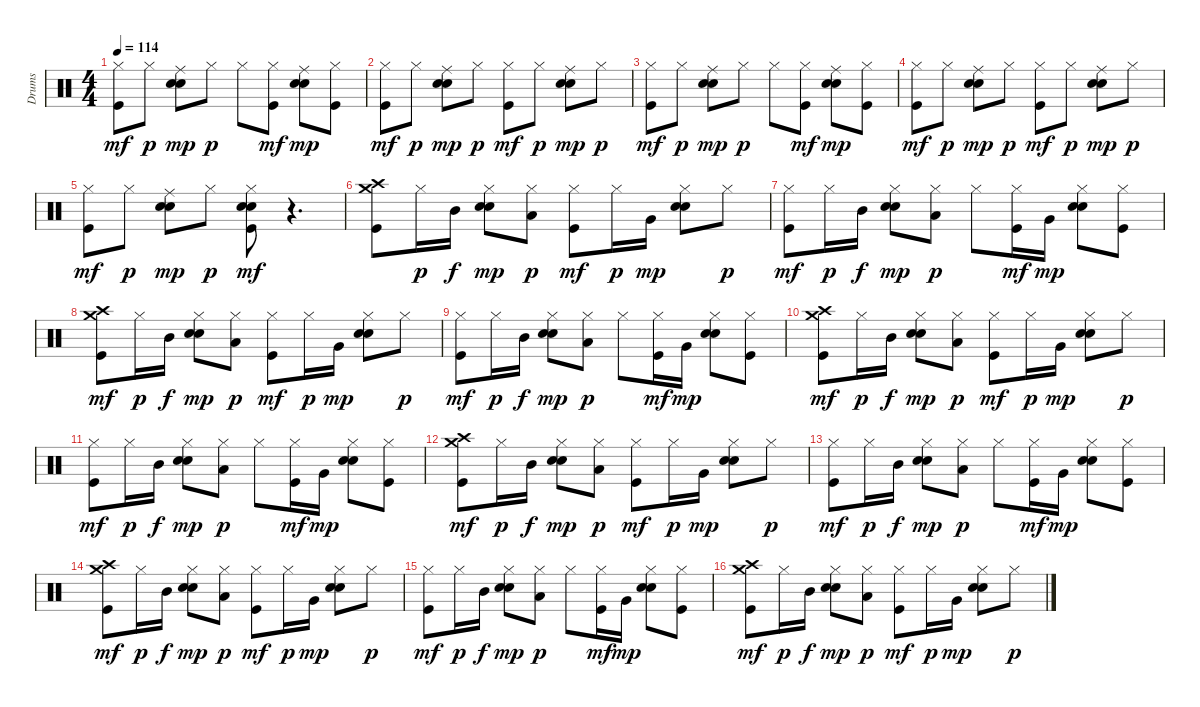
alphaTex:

\track ("Drums" "Drums") {instrument percussion}
\staff {score}
\articulation defaults
\ts (4 4)
\tempo 114
\clef neutral
\ks c
("Hi-Hat (closed)" "Kick (hit)").8{dy mf} "Hi-Hat (closed)".8{dy p} ("Ride (middle)" "Snare (hit) 2" "Electric Snare (hit)").8{dy mp} "Hi-Hat (closed)".8{dy p} "Hi-Hat (closed)".8 ("Hi-Hat (closed)" "Kick (hit)").8{dy mf} ("Ride (middle)" "Snare (hit) 2" "Electric Snare (hit)").8{dy mp} ("Hi-Hat (closed)" "Kick (hit)").8 |
("Hi-Hat (closed)" "Kick (hit)").8{dy mf} "Hi-Hat (closed)".8{dy p} ("Ride (middle)" "Snare (hit) 2" "Electric Snare (hit)").8{dy mp} "Hi-Hat (closed)".8{dy p} ("Hi-Hat (closed)" "Kick (hit)").8{dy mf} "Hi-Hat (closed)".8{dy p} ("Ride (middle)" "Snare (hit) 2" "Electric Snare (hit)").8{dy mp} "Hi-Hat (closed)".8{dy p} |
("Hi-Hat (closed)" "Kick (hit)").8{dy mf} "Hi-Hat (closed)".8{dy p} ("Ride (middle)" "Snare (hit) 2" "Electric Snare (hit)").8{dy mp} "Hi-Hat (closed)".8{dy p} "Hi-Hat (closed)".8 ("Hi-Hat (closed)" "Kick (hit)").8{dy mf} ("Ride (middle)" "Snare (hit) 2" "Electric Snare (hit)").8{dy mp} ("Hi-Hat (closed)" "Kick (hit)").8 |
("Hi-Hat (closed)" "Kick (hit)").8{dy mf} "Hi-Hat (closed)".8{dy p} ("Ride (middle)" "Snare (hit) 2" "Electric Snare (hit)").8{dy mp} "Hi-Hat (closed)".8{dy p} ("Hi-Hat (closed)" "Kick (hit)").8{dy mf} "Hi-Hat (closed)".8{dy p} ("Ride (middle)" "Snare (hit) 2" "Electric Snare (hit)").8{dy mp} "Hi-Hat (closed)".8{dy p} |
("Hi-Hat (closed)" "Kick (hit)").8{dy mf} "Hi-Hat (closed)".8{dy p} ("Ride (middle)" "Snare (hit) 2" "Electric Snare (hit)").8{dy mp} "Hi-Hat (closed)".8{dy p} ("Hi-Hat (closed)" "Snare (hit) 2" "Electric Snare (hit)" "Kick (hit)").8{dy mf} r.4{d} |
("Crash medium (hit)" "Crash high (hit)" "Kick (hit)").8 "Hi-Hat (closed)".16{dy p} "Mid Tom (hit)".16{dy f} ("Hi-Hat (closed)" "Snare (hit) 2" "Electric Snare (hit)").8{dy mp} ("Hi-Hat (closed)" "Low Tom (hit)").8{dy p} ("Hi-Hat (closed)" "Kick (hit)").8{dy mf} "Hi-Hat (closed)".16{dy p} "Very Low Tom (hit)".16{dy mp} ("Hi-Hat (closed)" "Snare (hit) 2" "Electric Snare (hit)").8 "Hi-Hat (closed)".8{dy p} |
("Hi-Hat (closed)" "Kick (hit)").8{dy mf} "Hi-Hat (closed)".16{dy p} "Mid Tom (hit)".16{dy f} ("Hi-Hat (closed)" "Snare (hit) 2" "Electric Snare (hit)").8{dy mp} ("Hi-Hat (closed)" "Low Tom (hit)").8{dy p} "Hi-Hat (closed)".8 ("Hi-Hat (closed)" "Kick (hit)").16{dy mf} "Very Low Tom (hit)".16{dy mp} ("Hi-Hat (closed)" "Snare (hit) 2" "Electric Snare (hit)").8 ("Hi-Hat (closed)" "Kick (hit)").8 |
("Crash medium (hit)" "Crash high (hit)" "Kick (hit)").8{dy mf} "Hi-Hat (closed)".16{dy p} "Mid Tom (hit)".16{dy f} ("Hi-Hat (closed)" "Snare (hit) 2" "Electric Snare (hit)").8{dy mp} ("Hi-Hat (closed)" "Low Tom (hit)").8{dy p} ("Hi-Hat (closed)" "Kick (hit)").8{dy mf} "Hi-Hat (closed)".16{dy p} "Very Low Tom (hit)".16{dy mp} ("Hi-Hat (closed)" "Snare (hit) 2" "Electric Snare (hit)").8 "Hi-Hat (closed)".8{dy p} |
("Hi-Hat (closed)" "Kick (hit)").8{dy mf} "Hi-Hat (closed)".16{dy p} "Mid Tom (hit)".16{dy f} ("Hi-Hat (closed)" "Snare (hit) 2" "Electric Snare (hit)").8{dy mp} ("Hi-Hat (closed)" "Low Tom (hit)").8{dy p} "Hi-Hat (closed)".8 ("Hi-Hat (closed)" "Kick (hit)").16{dy mf} "Very Low Tom (hit)".16{dy mp} ("Hi-Hat (closed)" "Snare (hit) 2" "Electric Snare (hit)").8 ("Hi-Hat (closed)" "Kick (hit)").8 |
("Crash medium (hit)" "Crash high (hit)" "Kick (hit)").8{dy mf} "Hi-Hat (closed)".16{dy p} "Mid Tom (hit)".16{dy f} ("Hi-Hat (closed)" "Snare (hit) 2" "Electric Snare (hit)").8{dy mp} ("Hi-Hat (closed)" "Low Tom (hit)").8{dy p} ("Hi-Hat (closed)" "Kick (hit)").8{dy mf} "Hi-Hat (closed)".16{dy p} "Very Low Tom (hit)".16{dy mp} ("Hi-Hat (closed)" "Snare (hit) 2" "Electric Snare (hit)").8 "Hi-Hat (closed)".8{dy p} |
("Hi-Hat (closed)" "Kick (hit)").8{dy mf} "Hi-Hat (closed)".16{dy p} "Mid Tom (hit)".16{dy f} ("Hi-Hat (closed)" "Snare (hit) 2" "Electric Snare (hit)").8{dy mp} ("Hi-Hat (closed)" "Low Tom (hit)").8{dy p} "Hi-Hat (closed)".8 ("Hi-Hat (closed)" "Kick (hit)").16{dy mf} "Very Low Tom (hit)".16{dy mp} ("Hi-Hat (closed)" "Snare (hit) 2" "Electric Snare (hit)").8 ("Hi-Hat (closed)" "Kick (hit)").8 |
("Crash medium (hit)" "Crash high (hit)" "Kick (hit)").8{dy mf} "Hi-Hat (closed)".16{dy p} "Mid Tom (hit)".16{dy f} ("Hi-Hat (closed)" "Snare (hit) 2" "Electric Snare (hit)").8{dy mp} ("Hi-Hat (closed)" "Low Tom (hit)").8{dy p} ("Hi-Hat (closed)" "Kick (hit)").8{dy mf} "Hi-Hat (closed)".16{dy p} "Very Low Tom (hit)".16{dy mp} ("Hi-Hat (closed)" "Snare (hit) 2" "Electric Snare (hit)").8 "Hi-Hat (closed)".8{dy p} |
("Hi-Hat (closed)" "Kick (hit)").8{dy mf} "Hi-Hat (closed)".16{dy p} "Mid Tom (hit)".16{dy f} ("Hi-Hat (closed)" "Snare (hit) 2" "Electric Snare (hit)").8{dy mp} ("Hi-Hat (closed)" "Low Tom (hit)").8{dy p} "Hi-Hat (closed)".8 ("Hi-Hat (closed)" "Kick (hit)").16{dy mf} "Very Low Tom (hit)".16{dy mp} ("Hi-Hat (closed)" "Snare (hit) 2" "Electric Snare (hit)").8 ("Hi-Hat (closed)" "Kick (hit)").8 |
("Crash medium (hit)" "Crash high (hit)" "Kick (hit)").8{dy mf} "Hi-Hat (closed)".16{dy p} "Mid Tom (hit)".16{dy f} ("Hi-Hat (closed)" "Snare (hit) 2" "Electric Snare (hit)").8{dy mp} ("Hi-Hat (closed)" "Low Tom (hit)").8{dy p} ("Hi-Hat (closed)" "Kick (hit)").8{dy mf} "Hi-Hat (closed)".16{dy p} "Very Low Tom (hit)".16{dy mp} ("Hi-Hat (closed)" "Snare (hit) 2" "Electric Snare (hit)").8 "Hi-Hat (closed)".8{dy p} |
("Hi-Hat (closed)" "Kick (hit)").8{dy mf} "Hi-Hat (closed)".16{dy p} "Mid Tom (hit)".16{dy f} ("Hi-Hat (closed)" "Snare (hit) 2" "Electric Snare (hit)").8{dy mp} ("Hi-Hat (closed)" "Low Tom (hit)").8{dy p} "Hi-Hat (closed)".8 ("Hi-Hat (closed)" "Kick (hit)").16{dy mf} "Very Low Tom (hit)".16{dy mp} ("Hi-Hat (closed)" "Snare (hit) 2" "Electric Snare (hit)").8 ("Hi-Hat (closed)" "Kick (hit)").8 |
("Crash medium (hit)" "Crash high (hit)" "Kick (hit)").8{dy mf} "Hi-Hat (closed)".16{dy p} "Mid Tom (hit)".16{dy f} ("Hi-Hat (closed)" "Snare (hit) 2" "Electric Snare (hit)").8{dy mp} ("Hi-Hat (closed)" "Low Tom (hit)").8{dy p} ("Hi-Hat (closed)" "Kick (hit)").8{dy mf} "Hi-Hat (closed)".16{dy p} "Very Low Tom (hit)".16{dy mp} ("Hi-Hat (closed)" "Snare (hit) 2" "Electric Snare (hit)").8 "Hi-Hat (closed)".8{dy p}
